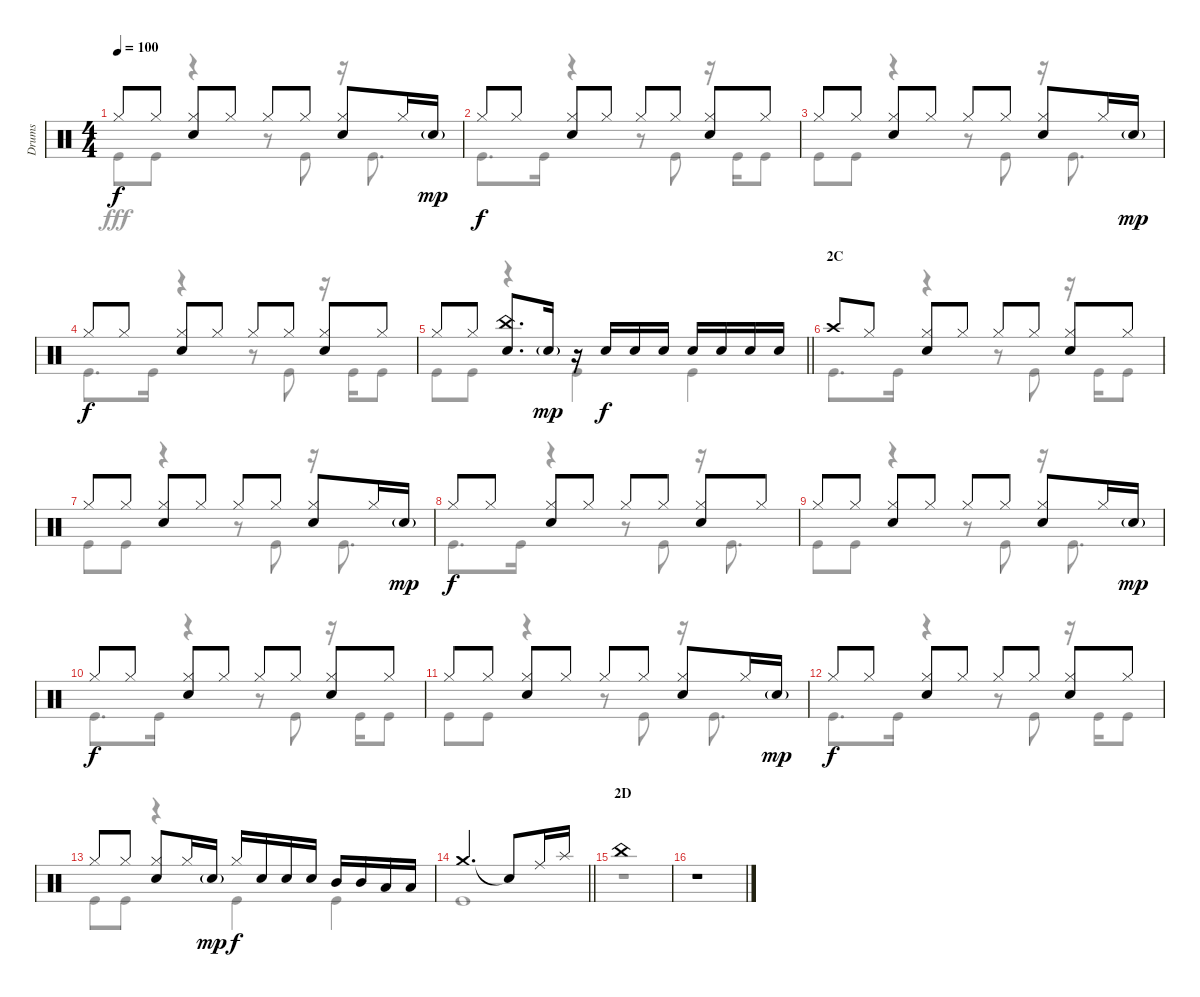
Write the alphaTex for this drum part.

\track ("Drums" "Drums") {instrument percussion}
\staff {score}
\articulation defaults
\voice
\ts (4 4)
\tempo 100
\clef neutral
\ks c "Hi-Hat (closed)".8{dy f} "Hi-Hat (closed)".8
("Hi-Hat (closed)" "Snare (hit) 2").8 "Hi-Hat (closed)".8 "Hi-Hat (closed)".8 "Hi-Hat (closed)".8 ("Hi-Hat (closed)" "Snare (hit) 2").8 "Hi-Hat (closed)".16 "Snare (hit) 2"{g}.16{dy mp} |
"Hi-Hat (closed)".8{dy f} "Hi-Hat (closed)".8 ("Hi-Hat (closed)" "Snare (hit) 2").8 "Hi-Hat (closed)".8 "Hi-Hat (closed)".8 "Hi-Hat (closed)".8 ("Hi-Hat (closed)" "Snare (hit) 2").8 "Hi-Hat (closed)".8 |
"Hi-Hat (closed)".8 "Hi-Hat (closed)".8 ("Hi-Hat (closed)" "Snare (hit) 2").8 "Hi-Hat (closed)".8 "Hi-Hat (closed)".8 "Hi-Hat (closed)".8 ("Hi-Hat (closed)" "Snare (hit) 2").8 "Hi-Hat (closed)".16 "Snare (hit) 2"{g}.16{dy mp} |
"Hi-Hat (closed)".8{dy f} "Hi-Hat (closed)".8 ("Hi-Hat (closed)" "Snare (hit) 2").8 "Hi-Hat (closed)".8 "Hi-Hat (closed)".8 "Hi-Hat (closed)".8 ("Hi-Hat (closed)" "Snare (hit) 2").8 "Hi-Hat (closed)".8 |
\barLineRight lightlight "Hi-Hat (closed)".8 "Hi-Hat (closed)".8
("China (hit)" "Snare (hit) 2").8{d} "Snare (hit) 2"{g}.16{dy mp} r.16 "Snare (hit) 2".16{dy f} "Snare (hit) 2".16 "Snare (hit) 2".16 "Snare (hit) 2".16 "Snare (hit) 2".16 "Snare (hit) 2".16 "Snare (hit) 2".16 |
\section ("" "2C")
"Crash high (hit)".8 "Hi-Hat (closed)".8 ("Hi-Hat (closed)" "Snare (hit) 2").8 "Hi-Hat (closed)".8 "Hi-Hat (closed)".8 "Hi-Hat (closed)".8 ("Hi-Hat (closed)" "Snare (hit) 2").8 "Hi-Hat (closed)".8 |
"Hi-Hat (closed)".8 "Hi-Hat (closed)".8 ("Hi-Hat (closed)" "Snare (hit) 2").8 "Hi-Hat (closed)".8 "Hi-Hat (closed)".8 "Hi-Hat (closed)".8 ("Hi-Hat (closed)" "Snare (hit) 2").8 "Hi-Hat (closed)".16 "Snare (hit) 2"{g}.16{dy mp} |
"Hi-Hat (closed)".8{dy f} "Hi-Hat (closed)".8 ("Hi-Hat (closed)" "Snare (hit) 2").8 "Hi-Hat (closed)".8 "Hi-Hat (closed)".8 "Hi-Hat (closed)".8 ("Hi-Hat (closed)" "Snare (hit) 2").8 "Hi-Hat (closed)".8 |
"Hi-Hat (closed)".8 "Hi-Hat (closed)".8 ("Hi-Hat (closed)" "Snare (hit) 2").8 "Hi-Hat (closed)".8 "Hi-Hat (closed)".8 "Hi-Hat (closed)".8 ("Hi-Hat (closed)" "Snare (hit) 2").8 "Hi-Hat (closed)".16 "Snare (hit) 2"{g}.16{dy mp} |
"Hi-Hat (closed)".8{dy f} "Hi-Hat (closed)".8 ("Hi-Hat (closed)" "Snare (hit) 2").8 "Hi-Hat (closed)".8 "Hi-Hat (closed)".8 "Hi-Hat (closed)".8 ("Hi-Hat (closed)" "Snare (hit) 2").8 "Hi-Hat (closed)".8 |
"Hi-Hat (closed)".8 "Hi-Hat (closed)".8 ("Hi-Hat (closed)" "Snare (hit) 2").8 "Hi-Hat (closed)".8 "Hi-Hat (closed)".8 "Hi-Hat (closed)".8 ("Hi-Hat (closed)" "Snare (hit) 2").8 "Hi-Hat (closed)".16 "Snare (hit) 2"{g}.16{dy mp} |
"Hi-Hat (closed)".8{dy f} "Hi-Hat (closed)".8 ("Hi-Hat (closed)" "Snare (hit) 2").8 "Hi-Hat (closed)".8 "Hi-Hat (closed)".8 "Hi-Hat (closed)".8 ("Hi-Hat (closed)" "Snare (hit) 2").8 "Hi-Hat (closed)".8 |
"Hi-Hat (closed)".8 "Hi-Hat (closed)".8 ("Hi-Hat (closed)" "Snare (hit) 2").8 "Hi-Hat (closed)".16 "Snare (hit) 2"{g}.16{dy mp} "Hi-Hat (closed)".16{dy f} "Snare (hit) 2".16 "Snare (hit) 2".16 "Snare (hit) 2".16 "Mid Tom (hit)".16 "Mid Tom (hit)".16 "Low Tom (hit)".16 "Low Tom (hit)".16 |
\barLineRight lightlight "Crash medium (hit)".2{d} "Snare (hit)"{t}.8 "Ride (middle)".16 "Splash (hit)".16
|
\section ("" "2D")
"China (hit)".1 |
r.1
\voice
\clef neutral
\ottava regular
\simile none
\ks c "Kick (hit)".8{dy fff} "Kick (hit)".8
r.4 r.8 "Kick (hit)".8 r.16 "Kick (hit)".8{d} |
"Kick (hit)".8{d} "Kick (hit)".16 r.4 r.8 "Kick (hit)".8 r.16 "Kick (hit)".16 "Kick (hit)".8 |
"Kick (hit)".8 "Kick (hit)".8 r.4 r.8 "Kick (hit)".8 r.16 "Kick (hit)".8{d} |
"Kick (hit)".8{d} "Kick (hit)".16 r.4 r.8 "Kick (hit)".8 r.16 "Kick (hit)".16 "Kick (hit)".8 |
\barLineRight lightlight "Kick (hit)".8 "Kick (hit)".8
r.4 "Kick (hit)".4 "Kick (hit)".4 |
"Kick (hit)".8{d} "Kick (hit)".16 r.4 r.8 "Kick (hit)".8 r.16 "Kick (hit)".16 "Kick (hit)".8 |
"Kick (hit)".8 "Kick (hit)".8 r.4 r.8 "Kick (hit)".8 r.16 "Kick (hit)".8{d} |
"Kick (hit)".8{d} "Kick (hit)".16 r.4 r.8 "Kick (hit)".8 r.16 "Kick (hit)".8{d} |
"Kick (hit)".8 "Kick (hit)".8 r.4 r.8 "Kick (hit)".8 r.16 "Kick (hit)".8{d} |
"Kick (hit)".8{d} "Kick (hit)".16 r.4 r.8 "Kick (hit)".8 r.16 "Kick (hit)".16 "Kick (hit)".8 |
"Kick (hit)".8 "Kick (hit)".8 r.4 r.8 "Kick (hit)".8 r.16 "Kick (hit)".8{d} |
"Kick (hit)".8{d} "Kick (hit)".16 r.4 r.8 "Kick (hit)".8 r.16 "Kick (hit)".16 "Kick (hit)".8 |
"Kick (hit)".8 "Kick (hit)".8 r.4 "Kick (hit)".4 "Kick (hit)".4 |
\barLineRight lightlight "Kick (hit)".1
|
r.1 |
r.1
